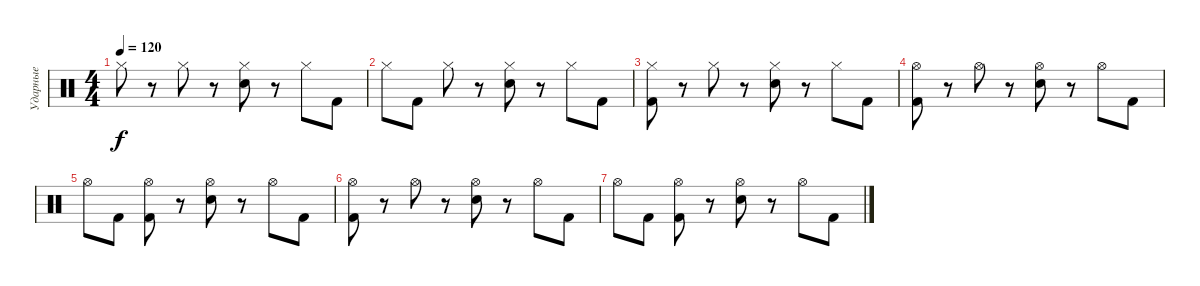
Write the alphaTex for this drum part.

\track ("Ударные" "Ударные") {instrument percussion}
\staff {score}
\articulation defaults
\ts (4 4)
\tempo 120
\clef neutral
\ks c "Hi-Hat (closed)".8{dy f}
r.8 "Hi-Hat (closed)".8 r.8 ("Hi-Hat (closed)" "Electric Snare (hit)").8 r.8 "Hi-Hat (closed)".8 "Kick (hit) 2".8 |
"Hi-Hat (closed)".8 "Kick (hit) 2".8 "Hi-Hat (closed)".8 r.8 ("Hi-Hat (closed)" "Electric Snare (hit)").8 r.8 "Hi-Hat (closed)".8 "Kick (hit) 2".8 |
("Hi-Hat (closed)" "Kick (hit) 2").8 r.8 "Hi-Hat (closed)".8 r.8 ("Hi-Hat (closed)" "Electric Snare (hit)").8 r.8 "Hi-Hat (closed)".8 "Kick (hit) 2".8 |
("Hi-Hat (open)" "Kick (hit) 2").8 r.8 "Hi-Hat (open)".8 r.8 ("Hi-Hat (open)" "Electric Snare (hit)").8 r.8 "Hi-Hat (open)".8 "Kick (hit) 2".8 |
"Hi-Hat (open)".8 "Kick (hit) 2".8 ("Hi-Hat (open)" "Kick (hit) 2").8 r.8 ("Hi-Hat (open)" "Electric Snare (hit)").8 r.8 "Hi-Hat (open)".8 "Kick (hit) 2".8 |
("Hi-Hat (open)" "Kick (hit) 2").8 r.8 "Hi-Hat (open)".8 r.8 ("Hi-Hat (open)" "Electric Snare (hit)").8 r.8 "Hi-Hat (open)".8 "Kick (hit) 2".8 |
"Hi-Hat (open)".8 "Kick (hit) 2".8 ("Hi-Hat (open)" "Kick (hit) 2").8 r.8 ("Hi-Hat (open)" "Electric Snare (hit)").8 r.8 "Hi-Hat (open)".8 "Kick (hit) 2".8
